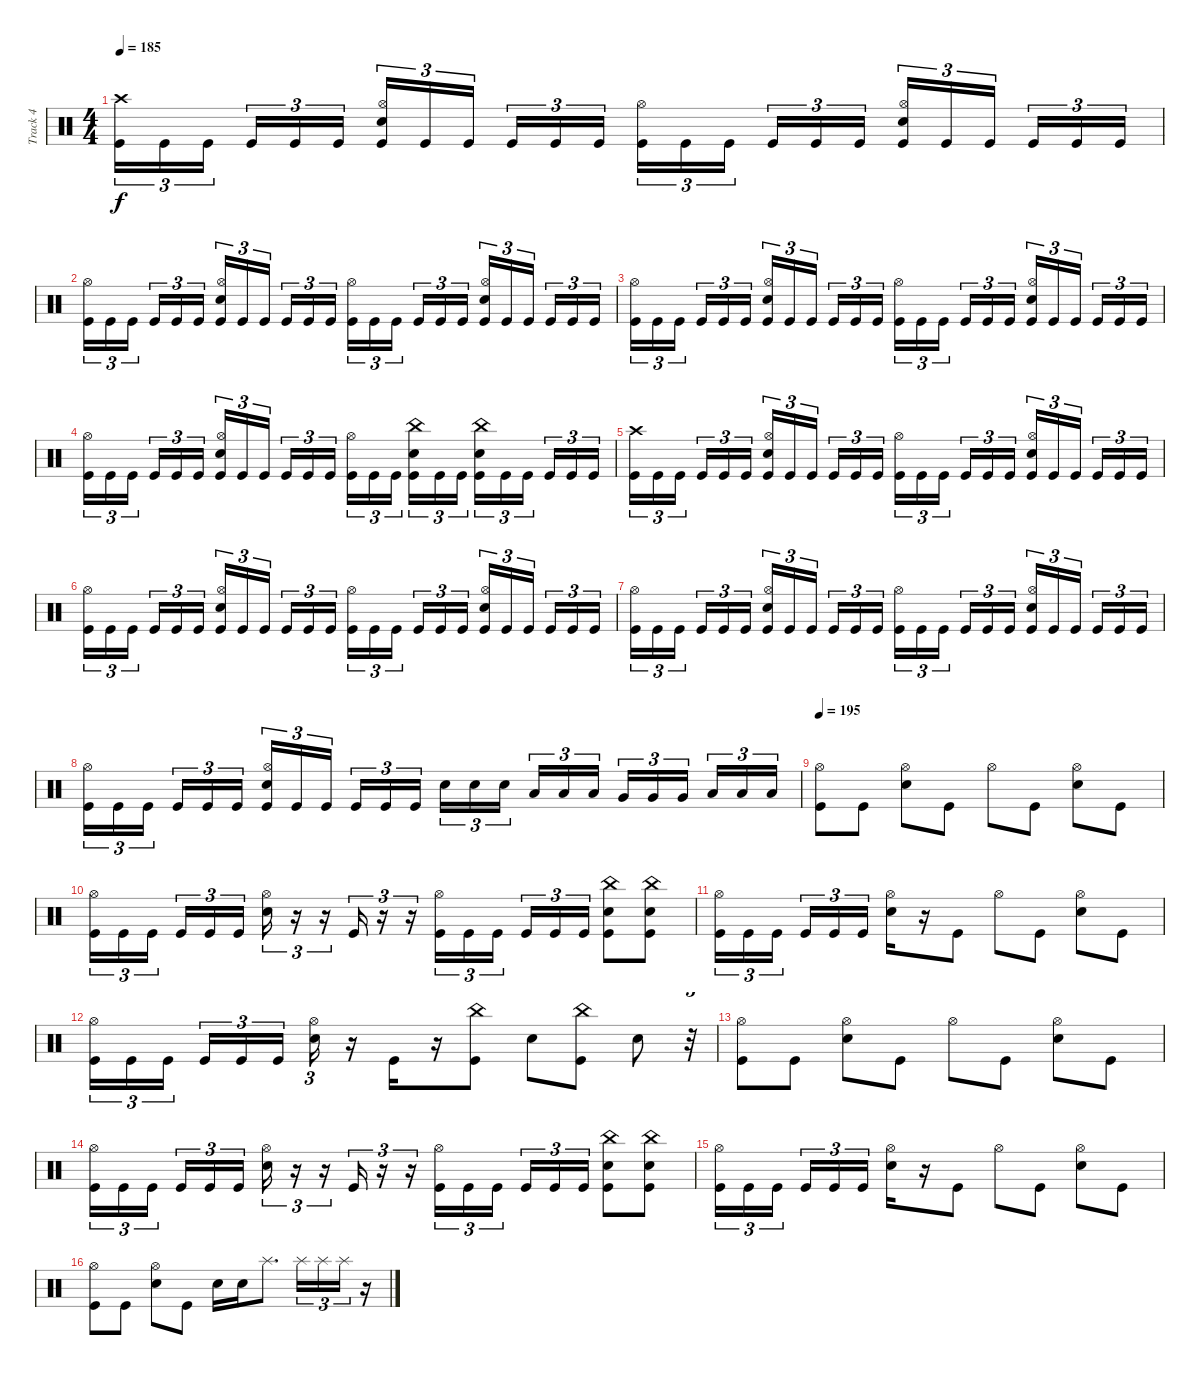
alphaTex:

\track ("Track 4" "Track 4") {instrument percussion}
\staff {score}
\articulation defaults
\ts (4 4)
\tempo 185
\clef neutral
\ks c
("Crash high (hit)" "Kick (hit)").16{tu (3 2) dy f} "Kick (hit)".16{tu (3 2)} "Kick (hit)".16{tu (3 2)} "Kick (hit)".16{tu (3 2)} "Kick (hit)".16{tu (3 2)} "Kick (hit)".16{tu (3 2)} ("Hi-Hat (open)" "Electric Snare (hit)" "Kick (hit)").16{tu (3 2)} "Kick (hit)".16{tu (3 2)} "Kick (hit)".16{tu (3 2)} "Kick (hit)".16{tu (3 2)} "Kick (hit)".16{tu (3 2)} "Kick (hit)".16{tu (3 2)} ("Hi-Hat (open)" "Kick (hit)").16{tu (3 2)} "Kick (hit)".16{tu (3 2)} "Kick (hit)".16{tu (3 2)} "Kick (hit)".16{tu (3 2)} "Kick (hit)".16{tu (3 2)} "Kick (hit)".16{tu (3 2)} ("Hi-Hat (open)" "Electric Snare (hit)" "Kick (hit)").16{tu (3 2)} "Kick (hit)".16{tu (3 2)} "Kick (hit)".16{tu (3 2)} "Kick (hit)".16{tu (3 2)} "Kick (hit)".16{tu (3 2)} "Kick (hit)".16{tu (3 2)} |
("Hi-Hat (open)" "Kick (hit)").16{tu (3 2)} "Kick (hit)".16{tu (3 2)} "Kick (hit)".16{tu (3 2)} "Kick (hit)".16{tu (3 2)} "Kick (hit)".16{tu (3 2)} "Kick (hit)".16{tu (3 2)} ("Hi-Hat (open)" "Electric Snare (hit)" "Kick (hit)").16{tu (3 2)} "Kick (hit)".16{tu (3 2)} "Kick (hit)".16{tu (3 2)} "Kick (hit)".16{tu (3 2)} "Kick (hit)".16{tu (3 2)} "Kick (hit)".16{tu (3 2)} ("Hi-Hat (open)" "Kick (hit)").16{tu (3 2)} "Kick (hit)".16{tu (3 2)} "Kick (hit)".16{tu (3 2)} "Kick (hit)".16{tu (3 2)} "Kick (hit)".16{tu (3 2)} "Kick (hit)".16{tu (3 2)} ("Hi-Hat (open)" "Electric Snare (hit)" "Kick (hit)").16{tu (3 2)} "Kick (hit)".16{tu (3 2)} "Kick (hit)".16{tu (3 2)} "Kick (hit)".16{tu (3 2)} "Kick (hit)".16{tu (3 2)} "Kick (hit)".16{tu (3 2)} |
("Hi-Hat (open)" "Kick (hit)").16{tu (3 2)} "Kick (hit)".16{tu (3 2)} "Kick (hit)".16{tu (3 2)} "Kick (hit)".16{tu (3 2)} "Kick (hit)".16{tu (3 2)} "Kick (hit)".16{tu (3 2)} ("Hi-Hat (open)" "Electric Snare (hit)" "Kick (hit)").16{tu (3 2)} "Kick (hit)".16{tu (3 2)} "Kick (hit)".16{tu (3 2)} "Kick (hit)".16{tu (3 2)} "Kick (hit)".16{tu (3 2)} "Kick (hit)".16{tu (3 2)} ("Hi-Hat (open)" "Kick (hit)").16{tu (3 2)} "Kick (hit)".16{tu (3 2)} "Kick (hit)".16{tu (3 2)} "Kick (hit)".16{tu (3 2)} "Kick (hit)".16{tu (3 2)} "Kick (hit)".16{tu (3 2)} ("Hi-Hat (open)" "Electric Snare (hit)" "Kick (hit)").16{tu (3 2)} "Kick (hit)".16{tu (3 2)} "Kick (hit)".16{tu (3 2)} "Kick (hit)".16{tu (3 2)} "Kick (hit)".16{tu (3 2)} "Kick (hit)".16{tu (3 2)} |
("Hi-Hat (open)" "Kick (hit)").16{tu (3 2)} "Kick (hit)".16{tu (3 2)} "Kick (hit)".16{tu (3 2)} "Kick (hit)".16{tu (3 2)} "Kick (hit)".16{tu (3 2)} "Kick (hit)".16{tu (3 2)} ("Hi-Hat (open)" "Electric Snare (hit)" "Kick (hit)").16{tu (3 2)} "Kick (hit)".16{tu (3 2)} "Kick (hit)".16{tu (3 2)} "Kick (hit)".16{tu (3 2)} "Kick (hit)".16{tu (3 2)} "Kick (hit)".16{tu (3 2)} ("Hi-Hat (open)" "Kick (hit)").16{tu (3 2)} "Kick (hit)".16{tu (3 2)} "Kick (hit)".16{tu (3 2)} ("China (hit)" "Electric Snare (hit)" "Kick (hit)").16{tu (3 2)} "Kick (hit)".16{tu (3 2)} "Kick (hit)".16{tu (3 2)} ("China (hit)" "Electric Snare (hit)" "Kick (hit)").16{tu (3 2)} "Kick (hit)".16{tu (3 2)} "Kick (hit)".16{tu (3 2)} "Kick (hit)".16{tu (3 2)} "Kick (hit)".16{tu (3 2)} "Kick (hit)".16{tu (3 2)} |
("Crash high (hit)" "Kick (hit)").16{tu (3 2)} "Kick (hit)".16{tu (3 2)} "Kick (hit)".16{tu (3 2)} "Kick (hit)".16{tu (3 2)} "Kick (hit)".16{tu (3 2)} "Kick (hit)".16{tu (3 2)} ("Hi-Hat (open)" "Electric Snare (hit)" "Kick (hit)").16{tu (3 2)} "Kick (hit)".16{tu (3 2)} "Kick (hit)".16{tu (3 2)} "Kick (hit)".16{tu (3 2)} "Kick (hit)".16{tu (3 2)} "Kick (hit)".16{tu (3 2)} ("Hi-Hat (open)" "Kick (hit)").16{tu (3 2)} "Kick (hit)".16{tu (3 2)} "Kick (hit)".16{tu (3 2)} "Kick (hit)".16{tu (3 2)} "Kick (hit)".16{tu (3 2)} "Kick (hit)".16{tu (3 2)} ("Hi-Hat (open)" "Electric Snare (hit)" "Kick (hit)").16{tu (3 2)} "Kick (hit)".16{tu (3 2)} "Kick (hit)".16{tu (3 2)} "Kick (hit)".16{tu (3 2)} "Kick (hit)".16{tu (3 2)} "Kick (hit)".16{tu (3 2)} |
("Hi-Hat (open)" "Kick (hit)").16{tu (3 2)} "Kick (hit)".16{tu (3 2)} "Kick (hit)".16{tu (3 2)} "Kick (hit)".16{tu (3 2)} "Kick (hit)".16{tu (3 2)} "Kick (hit)".16{tu (3 2)} ("Hi-Hat (open)" "Electric Snare (hit)" "Kick (hit)").16{tu (3 2)} "Kick (hit)".16{tu (3 2)} "Kick (hit)".16{tu (3 2)} "Kick (hit)".16{tu (3 2)} "Kick (hit)".16{tu (3 2)} "Kick (hit)".16{tu (3 2)} ("Hi-Hat (open)" "Kick (hit)").16{tu (3 2)} "Kick (hit)".16{tu (3 2)} "Kick (hit)".16{tu (3 2)} "Kick (hit)".16{tu (3 2)} "Kick (hit)".16{tu (3 2)} "Kick (hit)".16{tu (3 2)} ("Hi-Hat (open)" "Electric Snare (hit)" "Kick (hit)").16{tu (3 2)} "Kick (hit)".16{tu (3 2)} "Kick (hit)".16{tu (3 2)} "Kick (hit)".16{tu (3 2)} "Kick (hit)".16{tu (3 2)} "Kick (hit)".16{tu (3 2)} |
("Hi-Hat (open)" "Kick (hit)").16{tu (3 2)} "Kick (hit)".16{tu (3 2)} "Kick (hit)".16{tu (3 2)} "Kick (hit)".16{tu (3 2)} "Kick (hit)".16{tu (3 2)} "Kick (hit)".16{tu (3 2)} ("Hi-Hat (open)" "Electric Snare (hit)" "Kick (hit)").16{tu (3 2)} "Kick (hit)".16{tu (3 2)} "Kick (hit)".16{tu (3 2)} "Kick (hit)".16{tu (3 2)} "Kick (hit)".16{tu (3 2)} "Kick (hit)".16{tu (3 2)} ("Hi-Hat (open)" "Kick (hit)").16{tu (3 2)} "Kick (hit)".16{tu (3 2)} "Kick (hit)".16{tu (3 2)} "Kick (hit)".16{tu (3 2)} "Kick (hit)".16{tu (3 2)} "Kick (hit)".16{tu (3 2)} ("Hi-Hat (open)" "Electric Snare (hit)" "Kick (hit)").16{tu (3 2)} "Kick (hit)".16{tu (3 2)} "Kick (hit)".16{tu (3 2)} "Kick (hit)".16{tu (3 2)} "Kick (hit)".16{tu (3 2)} "Kick (hit)".16{tu (3 2)} |
("Hi-Hat (open)" "Kick (hit)").16{tu (3 2)} "Kick (hit)".16{tu (3 2)} "Kick (hit)".16{tu (3 2)} "Kick (hit)".16{tu (3 2)} "Kick (hit)".16{tu (3 2)} "Kick (hit)".16{tu (3 2)} ("Hi-Hat (open)" "Electric Snare (hit)" "Kick (hit)").16{tu (3 2)} "Kick (hit)".16{tu (3 2)} "Kick (hit)".16{tu (3 2)} "Kick (hit)".16{tu (3 2)} "Kick (hit)".16{tu (3 2)} "Kick (hit)".16{tu (3 2)} "Electric Snare (hit)".16{tu (3 2)} "Electric Snare (hit)".16{tu (3 2)} "Electric Snare (hit)".16{tu (3 2)} "Low Tom (hit)".16{tu (3 2)} "Low Tom (hit)".16{tu (3 2)} "Low Tom (hit)".16{tu (3 2)} "Very Low Tom (hit)".16{tu (3 2)} "Very Low Tom (hit)".16{tu (3 2)} "Very Low Tom (hit)".16{tu (3 2)} "Low Floor Tom (hit)".16{tu (3 2)} "Low Floor Tom (hit)".16{tu (3 2)} "Low Floor Tom (hit)".16{tu (3 2)} |
\tempo 195
("Hi-Hat (open)" "Kick (hit)").8 "Kick (hit)".8 ("Hi-Hat (open)" "Electric Snare (hit)").8 "Kick (hit)".8 "Hi-Hat (open)".8 "Kick (hit)".8 ("Hi-Hat (open)" "Electric Snare (hit)").8 "Kick (hit)".8 |
("Hi-Hat (open)" "Kick (hit)").16{tu (3 2)} "Kick (hit)".16{tu (3 2)} "Kick (hit)".16{tu (3 2)} "Kick (hit)".16{tu (3 2)} "Kick (hit)".16{tu (3 2)} "Kick (hit)".16{tu (3 2)} ("Hi-Hat (open)" "Electric Snare (hit)").16{tu (3 2)} r.16{tu (3 2)} r.16{tu (3 2)} "Kick (hit)".16{tu (3 2)} r.16{tu (3 2)} r.16{tu (3 2)} ("Hi-Hat (open)" "Kick (hit)").16{tu (3 2)} "Kick (hit)".16{tu (3 2)} "Kick (hit)".16{tu (3 2)} "Kick (hit)".16{tu (3 2)} "Kick (hit)".16{tu (3 2)} "Kick (hit)".16{tu (3 2)} ("China (hit)" "Electric Snare (hit)" "Kick (hit)").8 ("China (hit)" "Electric Snare (hit)" "Kick (hit)").8 |
("Hi-Hat (open)" "Kick (hit)").16{tu (3 2)} "Kick (hit)".16{tu (3 2)} "Kick (hit)".16{tu (3 2)} "Kick (hit)".16{tu (3 2)} "Kick (hit)".16{tu (3 2)} "Kick (hit)".16{tu (3 2)} ("Hi-Hat (open)" "Electric Snare (hit)").16 r.16 "Kick (hit)".8 "Hi-Hat (open)".8 "Kick (hit)".8 ("Hi-Hat (open)" "Electric Snare (hit)").8 "Kick (hit)".8 |
("Hi-Hat (open)" "Kick (hit)").16{tu (3 2)} "Kick (hit)".16{tu (3 2)} "Kick (hit)".16{tu (3 2)} "Kick (hit)".16{tu (3 2)} "Kick (hit)".16{tu (3 2)} "Kick (hit)".16{tu (3 2)} ("Hi-Hat (open)" "Electric Snare (hit)").16{tu (3 2)} r.16 "Kick (hit)".16 r.16 ("China (hit)" "Kick (hit)").8 "Electric Snare (hit)".8 ("China (hit)" "Kick (hit)").8 "Electric Snare (hit)".8 r.32{tu (3 2)} |
("Hi-Hat (open)" "Kick (hit)").8 "Kick (hit)".8 ("Hi-Hat (open)" "Electric Snare (hit)").8 "Kick (hit)".8 "Hi-Hat (open)".8 "Kick (hit)".8 ("Hi-Hat (open)" "Electric Snare (hit)").8 "Kick (hit)".8 |
("Hi-Hat (open)" "Kick (hit)").16{tu (3 2)} "Kick (hit)".16{tu (3 2)} "Kick (hit)".16{tu (3 2)} "Kick (hit)".16{tu (3 2)} "Kick (hit)".16{tu (3 2)} "Kick (hit)".16{tu (3 2)} ("Hi-Hat (open)" "Electric Snare (hit)").16{tu (3 2)} r.16{tu (3 2)} r.16{tu (3 2)} "Kick (hit)".16{tu (3 2)} r.16{tu (3 2)} r.16{tu (3 2)} ("Hi-Hat (open)" "Kick (hit)").16{tu (3 2)} "Kick (hit)".16{tu (3 2)} "Kick (hit)".16{tu (3 2)} "Kick (hit)".16{tu (3 2)} "Kick (hit)".16{tu (3 2)} "Kick (hit)".16{tu (3 2)} ("China (hit)" "Electric Snare (hit)" "Kick (hit)").8 ("China (hit)" "Electric Snare (hit)" "Kick (hit)").8 |
("Hi-Hat (open)" "Kick (hit)").16{tu (3 2)} "Kick (hit)".16{tu (3 2)} "Kick (hit)".16{tu (3 2)} "Kick (hit)".16{tu (3 2)} "Kick (hit)".16{tu (3 2)} "Kick (hit)".16{tu (3 2)} ("Hi-Hat (open)" "Electric Snare (hit)").16 r.16 "Kick (hit)".8 "Hi-Hat (open)".8 "Kick (hit)".8 ("Hi-Hat (open)" "Electric Snare (hit)").8 "Kick (hit)".8 |
("Hi-Hat (open)" "Kick (hit)").8 "Kick (hit)".8 ("Hi-Hat (open)" "Electric Snare (hit)").8 "Kick (hit)".8 "Electric Snare (hit)".16 "Electric Snare (hit)".16 "Splash (hit)".8{d} "Splash (hit)".16{tu (3 2)} "Splash (hit)".16{tu (3 2)} "Splash (hit)".16{tu (3 2)} r.16
